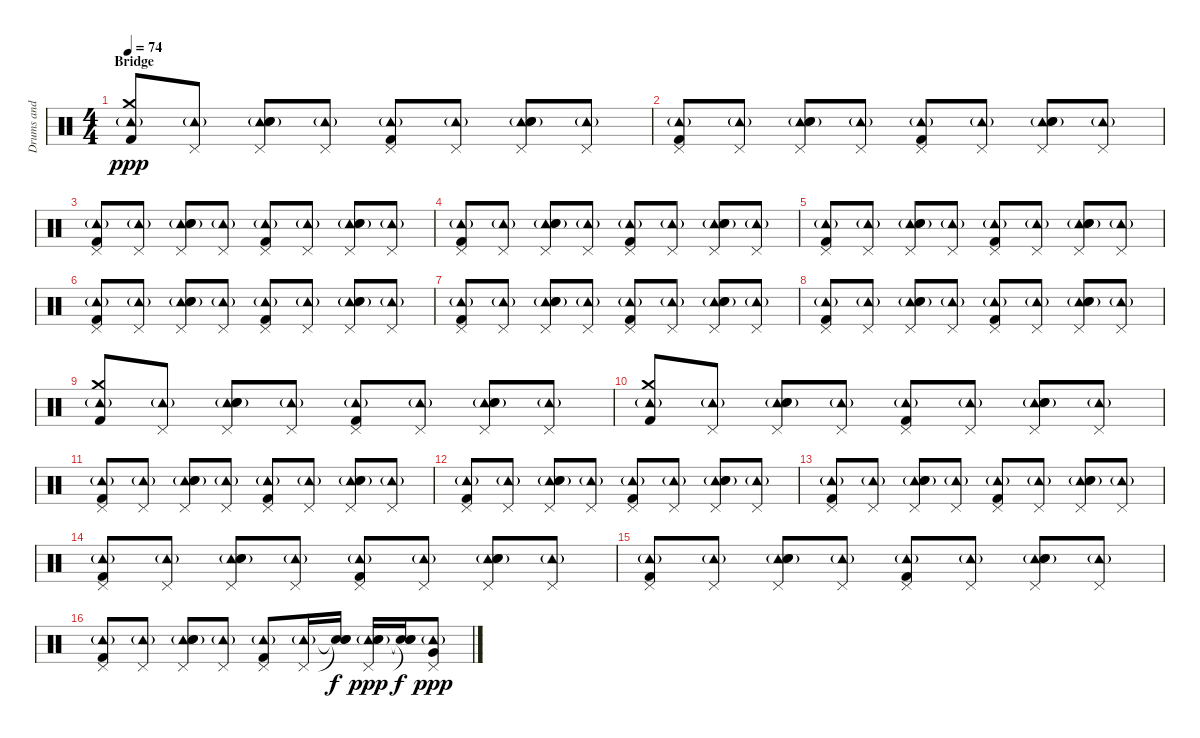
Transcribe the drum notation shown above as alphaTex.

\track ("Drums and Percussion" "Drums and ") {instrument percussion}
\staff {score}
\articulation defaults
\ts (4 4)
\section ("" "Bridge")
\tempo 74
\clef neutral
\ks c
("Tambourine (hit)"{g} "Crash medium (hit)" "Kick (hit) 2").8{dy ppp} ("Tambourine (hit)"{g} "Pedal Hi-Hat (hit)").8 ("Tambourine (hit)"{g} "Pedal Hi-Hat (hit)" "Electric Snare (hit)" "Hand Clap (hit)").8 ("Tambourine (hit)"{g} "Pedal Hi-Hat (hit)").8 ("Tambourine (hit)"{g} "Pedal Hi-Hat (hit)" "Kick (hit) 2").8 ("Tambourine (hit)"{g} "Pedal Hi-Hat (hit)").8 ("Tambourine (hit)"{g} "Pedal Hi-Hat (hit)" "Electric Snare (hit)" "Hand Clap (hit)").8 ("Tambourine (hit)"{g} "Pedal Hi-Hat (hit)").8 |
("Tambourine (hit)"{g} "Pedal Hi-Hat (hit)" "Kick (hit) 2").8 ("Tambourine (hit)"{g} "Pedal Hi-Hat (hit)").8 ("Tambourine (hit)"{g} "Pedal Hi-Hat (hit)" "Electric Snare (hit)" "Hand Clap (hit)").8 ("Tambourine (hit)"{g} "Pedal Hi-Hat (hit)").8 ("Tambourine (hit)"{g} "Pedal Hi-Hat (hit)" "Kick (hit) 2").8 ("Tambourine (hit)"{g} "Pedal Hi-Hat (hit)").8 ("Tambourine (hit)"{g} "Pedal Hi-Hat (hit)" "Electric Snare (hit)" "Hand Clap (hit)").8 ("Tambourine (hit)"{g} "Pedal Hi-Hat (hit)").8 |
("Tambourine (hit)"{g} "Pedal Hi-Hat (hit)" "Kick (hit) 2").8 ("Tambourine (hit)"{g} "Pedal Hi-Hat (hit)").8 ("Tambourine (hit)"{g} "Pedal Hi-Hat (hit)" "Electric Snare (hit)" "Hand Clap (hit)").8 ("Tambourine (hit)"{g} "Pedal Hi-Hat (hit)").8 ("Tambourine (hit)"{g} "Pedal Hi-Hat (hit)" "Kick (hit) 2").8 ("Tambourine (hit)"{g} "Pedal Hi-Hat (hit)").8 ("Tambourine (hit)"{g} "Pedal Hi-Hat (hit)" "Electric Snare (hit)" "Hand Clap (hit)").8 ("Tambourine (hit)"{g} "Pedal Hi-Hat (hit)").8 |
("Tambourine (hit)"{g} "Pedal Hi-Hat (hit)" "Kick (hit) 2").8 ("Tambourine (hit)"{g} "Pedal Hi-Hat (hit)").8 ("Tambourine (hit)"{g} "Pedal Hi-Hat (hit)" "Electric Snare (hit)" "Hand Clap (hit)").8 ("Tambourine (hit)"{g} "Pedal Hi-Hat (hit)").8 ("Tambourine (hit)"{g} "Pedal Hi-Hat (hit)" "Kick (hit) 2").8 ("Tambourine (hit)"{g} "Pedal Hi-Hat (hit)").8 ("Tambourine (hit)"{g} "Pedal Hi-Hat (hit)" "Electric Snare (hit)" "Hand Clap (hit)").8 ("Tambourine (hit)"{g} "Pedal Hi-Hat (hit)").8 |
("Tambourine (hit)"{g} "Pedal Hi-Hat (hit)" "Kick (hit) 2").8 ("Tambourine (hit)"{g} "Pedal Hi-Hat (hit)").8 ("Tambourine (hit)"{g} "Pedal Hi-Hat (hit)" "Electric Snare (hit)" "Hand Clap (hit)").8 ("Tambourine (hit)"{g} "Pedal Hi-Hat (hit)").8 ("Tambourine (hit)"{g} "Pedal Hi-Hat (hit)" "Kick (hit) 2").8 ("Tambourine (hit)"{g} "Pedal Hi-Hat (hit)").8 ("Tambourine (hit)"{g} "Pedal Hi-Hat (hit)" "Electric Snare (hit)" "Hand Clap (hit)").8 ("Tambourine (hit)"{g} "Pedal Hi-Hat (hit)").8 |
("Tambourine (hit)"{g} "Pedal Hi-Hat (hit)" "Kick (hit) 2").8 ("Tambourine (hit)"{g} "Pedal Hi-Hat (hit)").8 ("Tambourine (hit)"{g} "Pedal Hi-Hat (hit)" "Electric Snare (hit)" "Hand Clap (hit)").8 ("Tambourine (hit)"{g} "Pedal Hi-Hat (hit)").8 ("Tambourine (hit)"{g} "Pedal Hi-Hat (hit)" "Kick (hit) 2").8 ("Tambourine (hit)"{g} "Pedal Hi-Hat (hit)").8 ("Tambourine (hit)"{g} "Pedal Hi-Hat (hit)" "Electric Snare (hit)" "Hand Clap (hit)").8 ("Tambourine (hit)"{g} "Pedal Hi-Hat (hit)").8 |
("Tambourine (hit)"{g} "Pedal Hi-Hat (hit)" "Kick (hit) 2").8 ("Tambourine (hit)"{g} "Pedal Hi-Hat (hit)").8 ("Tambourine (hit)"{g} "Pedal Hi-Hat (hit)" "Electric Snare (hit)" "Hand Clap (hit)").8 ("Tambourine (hit)"{g} "Pedal Hi-Hat (hit)").8 ("Tambourine (hit)"{g} "Pedal Hi-Hat (hit)" "Kick (hit) 2").8 ("Tambourine (hit)"{g} "Pedal Hi-Hat (hit)").8 ("Tambourine (hit)"{g} "Pedal Hi-Hat (hit)" "Electric Snare (hit)" "Hand Clap (hit)").8 ("Tambourine (hit)"{g} "Pedal Hi-Hat (hit)").8 |
("Tambourine (hit)"{g} "Pedal Hi-Hat (hit)" "Kick (hit) 2").8 ("Tambourine (hit)"{g} "Pedal Hi-Hat (hit)").8 ("Tambourine (hit)"{g} "Pedal Hi-Hat (hit)" "Electric Snare (hit)" "Hand Clap (hit)").8 ("Tambourine (hit)"{g} "Pedal Hi-Hat (hit)").8 ("Tambourine (hit)"{g} "Pedal Hi-Hat (hit)" "Kick (hit) 2").8 ("Tambourine (hit)"{g} "Pedal Hi-Hat (hit)").8 ("Tambourine (hit)"{g} "Pedal Hi-Hat (hit)" "Electric Snare (hit)" "Hand Clap (hit)").8 ("Tambourine (hit)"{g} "Pedal Hi-Hat (hit)").8 |
("Tambourine (hit)"{g} "Crash medium (hit)" "Kick (hit) 2").8 ("Tambourine (hit)"{g} "Pedal Hi-Hat (hit)").8 ("Tambourine (hit)"{g} "Pedal Hi-Hat (hit)" "Electric Snare (hit)" "Hand Clap (hit)").8 ("Tambourine (hit)"{g} "Pedal Hi-Hat (hit)").8 ("Tambourine (hit)"{g} "Pedal Hi-Hat (hit)" "Kick (hit) 2").8 ("Tambourine (hit)"{g} "Pedal Hi-Hat (hit)").8 ("Tambourine (hit)"{g} "Pedal Hi-Hat (hit)" "Electric Snare (hit)" "Hand Clap (hit)").8 ("Tambourine (hit)"{g} "Pedal Hi-Hat (hit)").8 |
("Tambourine (hit)"{g} "Crash medium (hit)" "Kick (hit) 2").8 ("Tambourine (hit)"{g} "Pedal Hi-Hat (hit)").8 ("Tambourine (hit)"{g} "Pedal Hi-Hat (hit)" "Electric Snare (hit)" "Hand Clap (hit)").8 ("Tambourine (hit)"{g} "Pedal Hi-Hat (hit)").8 ("Tambourine (hit)"{g} "Pedal Hi-Hat (hit)" "Kick (hit) 2").8 ("Tambourine (hit)"{g} "Pedal Hi-Hat (hit)").8 ("Tambourine (hit)"{g} "Pedal Hi-Hat (hit)" "Electric Snare (hit)" "Hand Clap (hit)").8 ("Tambourine (hit)"{g} "Pedal Hi-Hat (hit)").8 |
("Tambourine (hit)"{g} "Pedal Hi-Hat (hit)" "Kick (hit) 2").8 ("Tambourine (hit)"{g} "Pedal Hi-Hat (hit)").8 ("Tambourine (hit)"{g} "Pedal Hi-Hat (hit)" "Electric Snare (hit)" "Hand Clap (hit)").8 ("Tambourine (hit)"{g} "Pedal Hi-Hat (hit)").8 ("Tambourine (hit)"{g} "Pedal Hi-Hat (hit)" "Kick (hit) 2").8 ("Tambourine (hit)"{g} "Pedal Hi-Hat (hit)").8 ("Tambourine (hit)"{g} "Pedal Hi-Hat (hit)" "Electric Snare (hit)" "Hand Clap (hit)").8 ("Tambourine (hit)"{g} "Pedal Hi-Hat (hit)").8 |
("Tambourine (hit)"{g} "Pedal Hi-Hat (hit)" "Kick (hit) 2").8 ("Tambourine (hit)"{g} "Pedal Hi-Hat (hit)").8 ("Tambourine (hit)"{g} "Pedal Hi-Hat (hit)" "Electric Snare (hit)" "Hand Clap (hit)").8 ("Tambourine (hit)"{g} "Pedal Hi-Hat (hit)").8 ("Tambourine (hit)"{g} "Pedal Hi-Hat (hit)" "Kick (hit) 2").8 ("Tambourine (hit)"{g} "Pedal Hi-Hat (hit)").8 ("Tambourine (hit)"{g} "Pedal Hi-Hat (hit)" "Electric Snare (hit)" "Hand Clap (hit)").8 ("Tambourine (hit)"{g} "Pedal Hi-Hat (hit)").8 |
("Tambourine (hit)"{g} "Pedal Hi-Hat (hit)" "Kick (hit) 2").8 ("Tambourine (hit)"{g} "Pedal Hi-Hat (hit)").8 ("Tambourine (hit)"{g} "Pedal Hi-Hat (hit)" "Electric Snare (hit)" "Hand Clap (hit)").8 ("Tambourine (hit)"{g} "Pedal Hi-Hat (hit)").8 ("Tambourine (hit)"{g} "Pedal Hi-Hat (hit)" "Kick (hit) 2").8 ("Tambourine (hit)"{g} "Pedal Hi-Hat (hit)").8 ("Tambourine (hit)"{g} "Pedal Hi-Hat (hit)" "Electric Snare (hit)" "Hand Clap (hit)").8 ("Tambourine (hit)"{g} "Pedal Hi-Hat (hit)").8 |
("Tambourine (hit)"{g} "Pedal Hi-Hat (hit)" "Kick (hit) 2").8 ("Tambourine (hit)"{g} "Pedal Hi-Hat (hit)").8 ("Tambourine (hit)"{g} "Pedal Hi-Hat (hit)" "Electric Snare (hit)" "Hand Clap (hit)").8 ("Tambourine (hit)"{g} "Pedal Hi-Hat (hit)").8 ("Tambourine (hit)"{g} "Pedal Hi-Hat (hit)" "Kick (hit) 2").8 ("Tambourine (hit)"{g} "Pedal Hi-Hat (hit)").8 ("Tambourine (hit)"{g} "Pedal Hi-Hat (hit)" "Electric Snare (hit)" "Hand Clap (hit)").8 ("Tambourine (hit)"{g} "Pedal Hi-Hat (hit)").8 |
("Tambourine (hit)"{g} "Pedal Hi-Hat (hit)" "Kick (hit) 2").8 ("Tambourine (hit)"{g} "Pedal Hi-Hat (hit)").8 ("Tambourine (hit)"{g} "Pedal Hi-Hat (hit)" "Electric Snare (hit)" "Hand Clap (hit)").8 ("Tambourine (hit)"{g} "Pedal Hi-Hat (hit)").8 ("Tambourine (hit)"{g} "Pedal Hi-Hat (hit)" "Kick (hit) 2").8 ("Tambourine (hit)"{g} "Pedal Hi-Hat (hit)").8 ("Tambourine (hit)"{g} "Pedal Hi-Hat (hit)" "Electric Snare (hit)" "Hand Clap (hit)").8 ("Tambourine (hit)"{g} "Pedal Hi-Hat (hit)").8 |
("Tambourine (hit)"{g} "Pedal Hi-Hat (hit)" "Kick (hit) 2").8 ("Tambourine (hit)"{g} "Pedal Hi-Hat (hit)").8 ("Tambourine (hit)"{g} "Pedal Hi-Hat (hit)" "Electric Snare (hit)" "Hand Clap (hit)").8 ("Tambourine (hit)"{g} "Pedal Hi-Hat (hit)").8 ("Tambourine (hit)"{g} "Pedal Hi-Hat (hit)" "Kick (hit) 2").8 ("Tambourine (hit)"{g} "Pedal Hi-Hat (hit)").16 ("Snare (hit)"{t} "Snare (hit)"{t} "Electric Snare (hit)").16{dy f} ("Tambourine (hit)"{g} "Pedal Hi-Hat (hit)" "Electric Snare (hit)" "Hand Clap (hit)").16{dy ppp} ("Snare (hit)"{t} "Snare (hit)"{t} "Electric Snare (hit)").16{dy f} ("Tambourine (hit)"{g} "Pedal Hi-Hat (hit)" "Very Low Tom (hit)").8{dy ppp}
